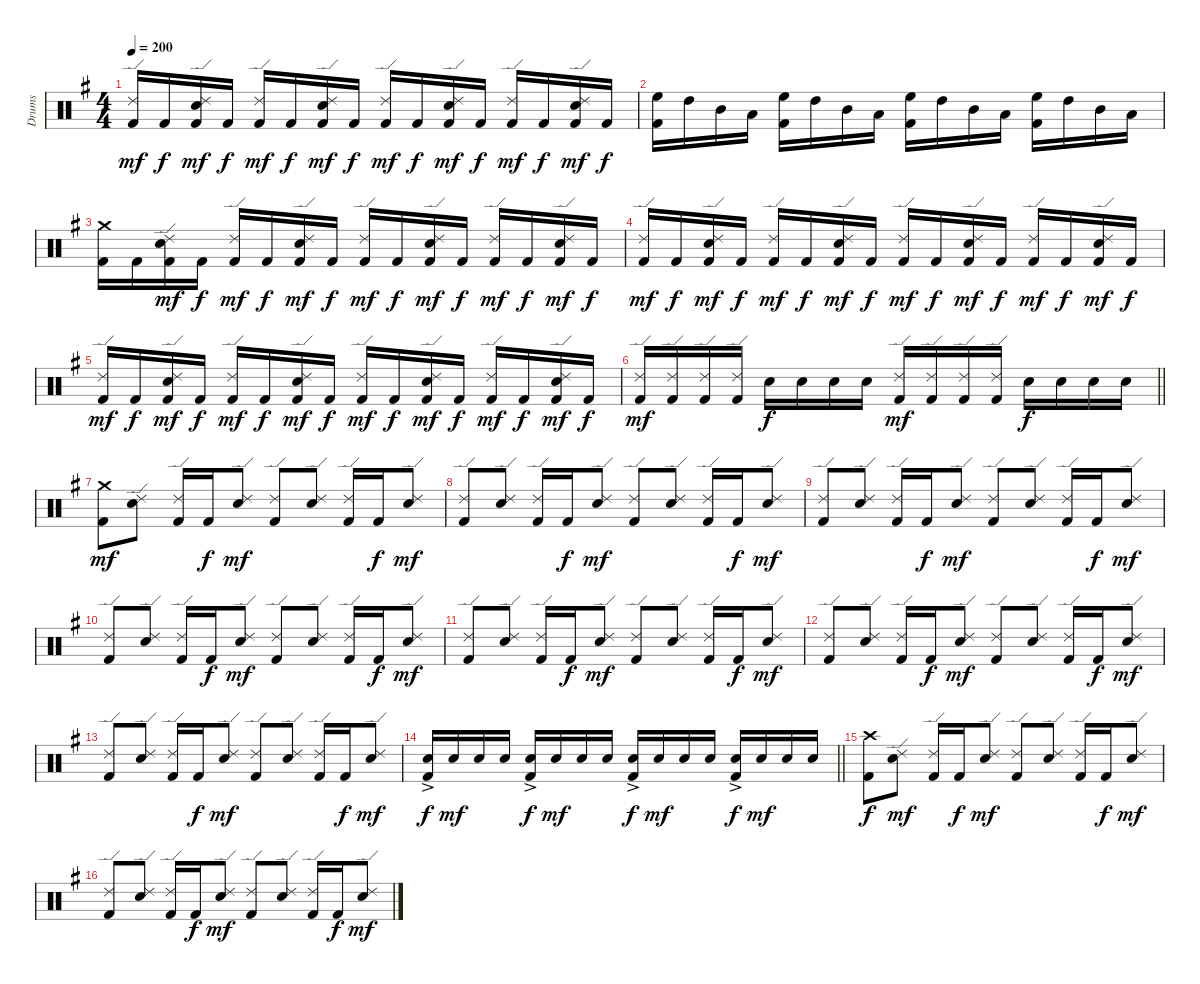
\track ("Drums" "Drums") {instrument percussion}
\staff {score}
\articulation defaults
\ts (4 4)
\tempo 200
\clef neutral
\ks g
("Ride (edge) 2" "Kick (hit) 2").16{dy mf} "Kick (hit) 2".16{dy f} ("Ride (edge) 2" "Snare (hit) 2" "Kick (hit) 2").16{dy mf} "Kick (hit) 2".16{dy f} ("Ride (edge) 2" "Kick (hit) 2").16{dy mf} "Kick (hit) 2".16{dy f} ("Ride (edge) 2" "Snare (hit) 2" "Kick (hit) 2").16{dy mf} "Kick (hit) 2".16{dy f} ("Ride (edge) 2" "Kick (hit) 2").16{dy mf} "Kick (hit) 2".16{dy f} ("Ride (edge) 2" "Snare (hit) 2" "Kick (hit) 2").16{dy mf} "Kick (hit) 2".16{dy f} ("Ride (edge) 2" "Kick (hit) 2").16{dy mf} "Kick (hit) 2".16{dy f} ("Ride (edge) 2" "Snare (hit) 2" "Kick (hit) 2").16{dy mf} "Kick (hit) 2".16{dy f} |
("High Floor Tom (hit)" "Kick (hit) 2").16 "High Tom (hit)".16 "Mid Tom (hit)".16 "Low Tom (hit)".16 ("High Floor Tom (hit)" "Kick (hit) 2").16 "High Tom (hit)".16 "Mid Tom (hit)".16 "Low Tom (hit)".16 ("High Floor Tom (hit)" "Kick (hit) 2").16 "High Tom (hit)".16 "Mid Tom (hit)".16 "Low Tom (hit)".16 ("High Floor Tom (hit)" "Kick (hit) 2").16 "High Tom (hit)".16 "Mid Tom (hit)".16 "Low Tom (hit)".16 |
("Crash medium (hit)" "Kick (hit) 2").16 "Kick (hit) 2".16 ("Ride (edge) 2" "Snare (hit) 2" "Kick (hit) 2").16{dy mf} "Kick (hit) 2".16{dy f} ("Ride (edge) 2" "Kick (hit) 2").16{dy mf} "Kick (hit) 2".16{dy f} ("Ride (edge) 2" "Snare (hit) 2" "Kick (hit) 2").16{dy mf} "Kick (hit) 2".16{dy f} ("Ride (edge) 2" "Kick (hit) 2").16{dy mf} "Kick (hit) 2".16{dy f} ("Ride (edge) 2" "Snare (hit) 2" "Kick (hit) 2").16{dy mf} "Kick (hit) 2".16{dy f} ("Ride (edge) 2" "Kick (hit) 2").16{dy mf} "Kick (hit) 2".16{dy f} ("Ride (edge) 2" "Snare (hit) 2" "Kick (hit) 2").16{dy mf} "Kick (hit) 2".16{dy f} |
("Ride (edge) 2" "Kick (hit) 2").16{dy mf} "Kick (hit) 2".16{dy f} ("Ride (edge) 2" "Snare (hit) 2" "Kick (hit) 2").16{dy mf} "Kick (hit) 2".16{dy f} ("Ride (edge) 2" "Kick (hit) 2").16{dy mf} "Kick (hit) 2".16{dy f} ("Ride (edge) 2" "Snare (hit) 2" "Kick (hit) 2").16{dy mf} "Kick (hit) 2".16{dy f} ("Ride (edge) 2" "Kick (hit) 2").16{dy mf} "Kick (hit) 2".16{dy f} ("Ride (edge) 2" "Snare (hit) 2" "Kick (hit) 2").16{dy mf} "Kick (hit) 2".16{dy f} ("Ride (edge) 2" "Kick (hit) 2").16{dy mf} "Kick (hit) 2".16{dy f} ("Ride (edge) 2" "Snare (hit) 2" "Kick (hit) 2").16{dy mf} "Kick (hit) 2".16{dy f} |
("Ride (edge) 2" "Kick (hit) 2").16{dy mf} "Kick (hit) 2".16{dy f} ("Ride (edge) 2" "Snare (hit) 2" "Kick (hit) 2").16{dy mf} "Kick (hit) 2".16{dy f} ("Ride (edge) 2" "Kick (hit) 2").16{dy mf} "Kick (hit) 2".16{dy f} ("Ride (edge) 2" "Snare (hit) 2" "Kick (hit) 2").16{dy mf} "Kick (hit) 2".16{dy f} ("Ride (edge) 2" "Kick (hit) 2").16{dy mf} "Kick (hit) 2".16{dy f} ("Ride (edge) 2" "Snare (hit) 2" "Kick (hit) 2").16{dy mf} "Kick (hit) 2".16{dy f} ("Ride (edge) 2" "Kick (hit) 2").16{dy mf} "Kick (hit) 2".16{dy f} ("Ride (edge) 2" "Snare (hit) 2" "Kick (hit) 2").16{dy mf} "Kick (hit) 2".16{dy f} |
\barLineRight lightlight
("Ride (edge) 2" "Kick (hit) 2").16{dy mf} ("Ride (edge) 2" "Kick (hit) 2").16 ("Ride (edge) 2" "Kick (hit) 2").16 ("Ride (edge) 2" "Kick (hit) 2").16 "Snare (hit) 2".16{dy f} "Snare (hit) 2".16 "Snare (hit) 2".16 "Snare (hit) 2".16 ("Ride (edge) 2" "Kick (hit) 2").16{dy mf} ("Ride (edge) 2" "Kick (hit) 2").16 ("Ride (edge) 2" "Kick (hit) 2").16 ("Ride (edge) 2" "Kick (hit) 2").16 "Snare (hit) 2".16{dy f} "Snare (hit) 2".16 "Snare (hit) 2".16 "Snare (hit) 2".16 |
\section ("" "")
("Crash medium (hit)" "Kick (hit) 2").8{dy mf} ("Ride (edge) 2" "Snare (hit) 2").8 ("Ride (edge) 2" "Kick (hit) 2").16 "Kick (hit) 2".16{dy f} ("Ride (edge) 2" "Snare (hit) 2").8{dy mf} ("Ride (edge) 2" "Kick (hit) 2").8 ("Ride (edge) 2" "Snare (hit) 2").8 ("Ride (edge) 2" "Kick (hit) 2").16 "Kick (hit) 2".16{dy f} ("Ride (edge) 2" "Snare (hit) 2").8{dy mf} |
("Ride (edge) 2" "Kick (hit) 2").8 ("Ride (edge) 2" "Snare (hit) 2").8 ("Ride (edge) 2" "Kick (hit) 2").16 "Kick (hit) 2".16{dy f} ("Ride (edge) 2" "Snare (hit) 2").8{dy mf} ("Ride (edge) 2" "Kick (hit) 2").8 ("Ride (edge) 2" "Snare (hit) 2").8 ("Ride (edge) 2" "Kick (hit) 2").16 "Kick (hit) 2".16{dy f} ("Ride (edge) 2" "Snare (hit) 2").8{dy mf} |
("Ride (edge) 2" "Kick (hit) 2").8 ("Ride (edge) 2" "Snare (hit) 2").8 ("Ride (edge) 2" "Kick (hit) 2").16 "Kick (hit) 2".16{dy f} ("Ride (edge) 2" "Snare (hit) 2").8{dy mf} ("Ride (edge) 2" "Kick (hit) 2").8 ("Ride (edge) 2" "Snare (hit) 2").8 ("Ride (edge) 2" "Kick (hit) 2").16 "Kick (hit) 2".16{dy f} ("Ride (edge) 2" "Snare (hit) 2").8{dy mf} |
("Ride (edge) 2" "Kick (hit) 2").8 ("Ride (edge) 2" "Snare (hit) 2").8 ("Ride (edge) 2" "Kick (hit) 2").16 "Kick (hit) 2".16{dy f} ("Ride (edge) 2" "Snare (hit) 2").8{dy mf} ("Ride (edge) 2" "Kick (hit) 2").8 ("Ride (edge) 2" "Snare (hit) 2").8 ("Ride (edge) 2" "Kick (hit) 2").16 "Kick (hit) 2".16{dy f} ("Ride (edge) 2" "Snare (hit) 2").8{dy mf} |
("Ride (edge) 2" "Kick (hit) 2").8 ("Ride (edge) 2" "Snare (hit) 2").8 ("Ride (edge) 2" "Kick (hit) 2").16 "Kick (hit) 2".16{dy f} ("Ride (edge) 2" "Snare (hit) 2").8{dy mf} ("Ride (edge) 2" "Kick (hit) 2").8 ("Ride (edge) 2" "Snare (hit) 2").8 ("Ride (edge) 2" "Kick (hit) 2").16 "Kick (hit) 2".16{dy f} ("Ride (edge) 2" "Snare (hit) 2").8{dy mf} |
("Ride (edge) 2" "Kick (hit) 2").8 ("Ride (edge) 2" "Snare (hit) 2").8 ("Ride (edge) 2" "Kick (hit) 2").16 "Kick (hit) 2".16{dy f} ("Ride (edge) 2" "Snare (hit) 2").8{dy mf} ("Ride (edge) 2" "Kick (hit) 2").8 ("Ride (edge) 2" "Snare (hit) 2").8 ("Ride (edge) 2" "Kick (hit) 2").16 "Kick (hit) 2".16{dy f} ("Ride (edge) 2" "Snare (hit) 2").8{dy mf} |
("Ride (edge) 2" "Kick (hit) 2").8 ("Ride (edge) 2" "Snare (hit) 2").8 ("Ride (edge) 2" "Kick (hit) 2").16 "Kick (hit) 2".16{dy f} ("Ride (edge) 2" "Snare (hit) 2").8{dy mf} ("Ride (edge) 2" "Kick (hit) 2").8 ("Ride (edge) 2" "Snare (hit) 2").8 ("Ride (edge) 2" "Kick (hit) 2").16 "Kick (hit) 2".16{dy f} ("Ride (edge) 2" "Snare (hit) 2").8{dy mf} |
\barLineRight lightlight
("Snare (hit) 2"{ac} "Kick (hit) 2").16{dy f} "Snare (hit) 2".16{dy mf} "Snare (hit) 2".16 "Snare (hit) 2".16 ("Snare (hit) 2"{ac} "Kick (hit) 2").16{dy f} "Snare (hit) 2".16{dy mf} "Snare (hit) 2".16 "Snare (hit) 2".16 ("Snare (hit) 2"{ac} "Kick (hit) 2").16{dy f} "Snare (hit) 2".16{dy mf} "Snare (hit) 2".16 "Snare (hit) 2".16 ("Snare (hit) 2"{ac} "Kick (hit) 2").16{dy f} "Snare (hit) 2".16{dy mf} "Snare (hit) 2".16 "Snare (hit) 2".16 |
\section ("" "")
("Crash high (hit)" "Kick (hit) 2").8{dy f} ("Ride (edge) 2" "Snare (hit) 2").8{dy mf} ("Ride (edge) 2" "Kick (hit) 2").16 "Kick (hit) 2".16{dy f} ("Ride (edge) 2" "Snare (hit) 2").8{dy mf} ("Ride (edge) 2" "Kick (hit) 2").8 ("Ride (edge) 2" "Snare (hit) 2").8 ("Ride (edge) 2" "Kick (hit) 2").16 "Kick (hit) 2".16{dy f} ("Ride (edge) 2" "Snare (hit) 2").8{dy mf} |
("Ride (edge) 2" "Kick (hit) 2").8 ("Ride (edge) 2" "Snare (hit) 2").8 ("Ride (edge) 2" "Kick (hit) 2").16 "Kick (hit) 2".16{dy f} ("Ride (edge) 2" "Snare (hit) 2").8{dy mf} ("Ride (edge) 2" "Kick (hit) 2").8 ("Ride (edge) 2" "Snare (hit) 2").8 ("Ride (edge) 2" "Kick (hit) 2").16 "Kick (hit) 2".16{dy f} ("Ride (edge) 2" "Snare (hit) 2").8{dy mf}
